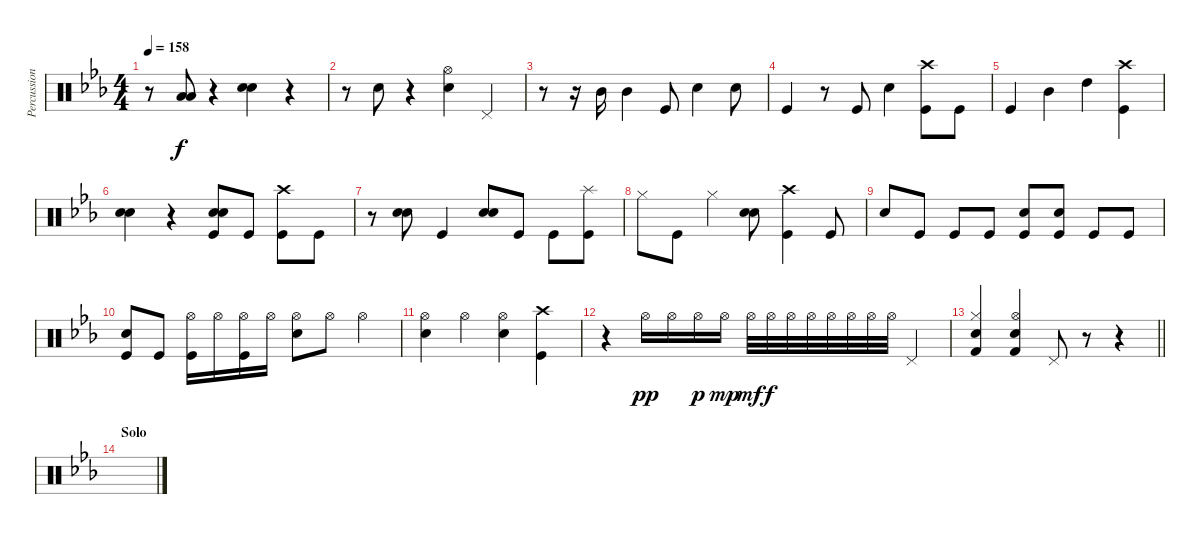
\track ("Percussion" "Percussion") {instrument percussion}
\staff {score}
\articulation defaults
\ts (4 4)
\tempo 158
\clef neutral
\ks eb
r.8{dy f} ("Low Tom (hit)" "Low Tom (hit)").8 r.4 ("Snare (hit) 2" "Snare (hit) 2").4 r.4 |
r.8 "Snare (hit) 2".8 r.4 ("Hi-Hat (open)" "Snare (hit) 2").4 "Pedal Hi-Hat (hit)".4 |
r.8 r.16 "Mid Tom (hit)".16 "Mid Tom (hit)".4 "Kick (hit)".8 "Snare (hit) 2".4 "Snare (hit) 2".8 |
"Kick (hit)".4 r.8 "Kick (hit)".8 "Snare (hit) 2".4 ("Kick (hit)" "Crash high (hit)").8 "Kick (hit)".8 |
"Kick (hit)".4 "Mid Tom (hit)".4 "High Tom (hit)".4 ("Kick (hit)" "Crash high (hit)").4 |
("Snare (hit) 2" "Snare (hit) 2").4 r.4 ("Snare (hit) 2" "Snare (hit) 2" "Kick (hit)").8 "Kick (hit)".8 ("Kick (hit)" "Crash high (hit)").8 "Kick (hit)".8 |
r.8 ("Snare (hit) 2" "Snare (hit) 2").8 "Kick (hit)".4 ("Snare (hit) 2" "Snare (hit) 2").8 "Kick (hit)".8 "Kick (hit)".8 ("Kick (hit)" "Splash (hit)").8 |
"Hi-Hat (closed)".8 "Kick (hit)".8 "Hi-Hat (closed)".4 ("Snare (hit) 2" "Snare (hit) 2").8 ("Crash high (hit)" "Kick (hit)").4 "Kick (hit)".8 |
"Snare (hit) 2".8 "Kick (hit)".8 "Kick (hit)".8 "Kick (hit)".8 ("Snare (hit) 2" "Kick (hit)").8 ("Snare (hit) 2" "Kick (hit)").8 "Kick (hit)".8 "Kick (hit)".8 |
("Kick (hit)" "Snare (hit) 2").8 "Kick (hit)".8 ("Kick (hit)" "Hi-Hat (open)").16 "Hi-Hat (open)".16 ("Kick (hit)" "Hi-Hat (open)").16 "Hi-Hat (open)".16 ("Hi-Hat (open)" "Snare (hit) 2").8 "Hi-Hat (open)".8 "Hi-Hat (open)".4 |
("Hi-Hat (open)" "Snare (hit) 2").4 "Hi-Hat (open)".4 ("Hi-Hat (open)" "Snare (hit) 2").4 ("Kick (hit)" "Crash high (hit)").4 |
r.4 "Hi-Hat (open)".16{dy pp} "Hi-Hat (open)".16 "Hi-Hat (open)".16{dy p} "Hi-Hat (open)".16{dy mp} "Hi-Hat (open)".32{dy mf} "Hi-Hat (open)".32{dy f} "Hi-Hat (open)".32 "Hi-Hat (open)".32 "Hi-Hat (open)".32 "Hi-Hat (open)".32 "Hi-Hat (open)".32 "Hi-Hat (open)".32 "Pedal Hi-Hat (hit)".4 |
\barLineRight lightlight
("Hi-Hat (closed)" "Snare (hit) 2" "Kick (hit) 2").4 ("Hi-Hat (open)" "Snare (hit) 2" "Kick (hit) 2").4 "Pedal Hi-Hat (hit)".8 r.8 r.4 |
\section ("" "Solo")
